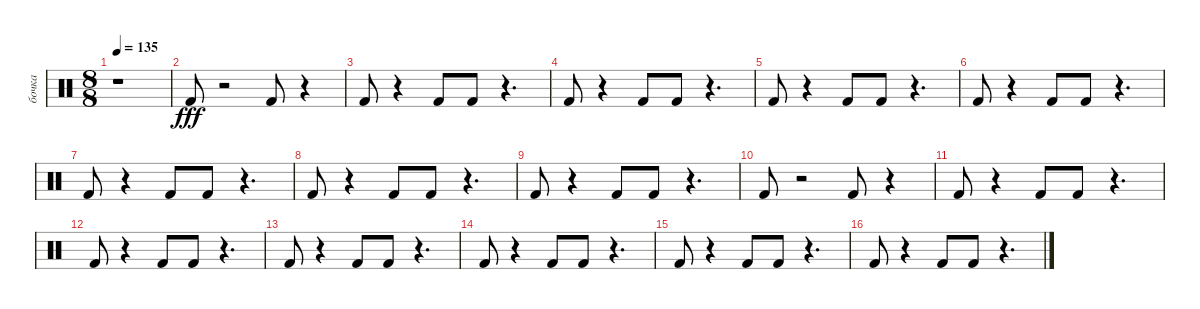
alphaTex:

\track ("бочка" "бочка") {instrument percussion}
\staff {score}
\articulation defaults
\ts (8 8)
\tempo 135
\clef neutral
\ks c
r.1{dy fff} |
"Kick (hit) 2".8 r.2 "Kick (hit) 2".8 r.4 |
"Kick (hit) 2".8 r.4 "Kick (hit) 2".8 "Kick (hit) 2".8 r.4{d} |
"Kick (hit) 2".8 r.4 "Kick (hit) 2".8 "Kick (hit) 2".8 r.4{d} |
"Kick (hit) 2".8 r.4 "Kick (hit) 2".8 "Kick (hit) 2".8 r.4{d} |
"Kick (hit) 2".8 r.4 "Kick (hit) 2".8 "Kick (hit) 2".8 r.4{d} |
"Kick (hit) 2".8 r.4 "Kick (hit) 2".8 "Kick (hit) 2".8 r.4{d} |
"Kick (hit) 2".8 r.4 "Kick (hit) 2".8 "Kick (hit) 2".8 r.4{d} |
"Kick (hit) 2".8 r.4 "Kick (hit) 2".8 "Kick (hit) 2".8 r.4{d} |
"Kick (hit) 2".8 r.2 "Kick (hit) 2".8 r.4 |
"Kick (hit) 2".8 r.4 "Kick (hit) 2".8 "Kick (hit) 2".8 r.4{d} |
"Kick (hit) 2".8 r.4 "Kick (hit) 2".8 "Kick (hit) 2".8 r.4{d} |
"Kick (hit) 2".8 r.4 "Kick (hit) 2".8 "Kick (hit) 2".8 r.4{d} |
"Kick (hit) 2".8 r.4 "Kick (hit) 2".8 "Kick (hit) 2".8 r.4{d} |
"Kick (hit) 2".8 r.4 "Kick (hit) 2".8 "Kick (hit) 2".8 r.4{d} |
"Kick (hit) 2".8 r.4 "Kick (hit) 2".8 "Kick (hit) 2".8 r.4{d}
